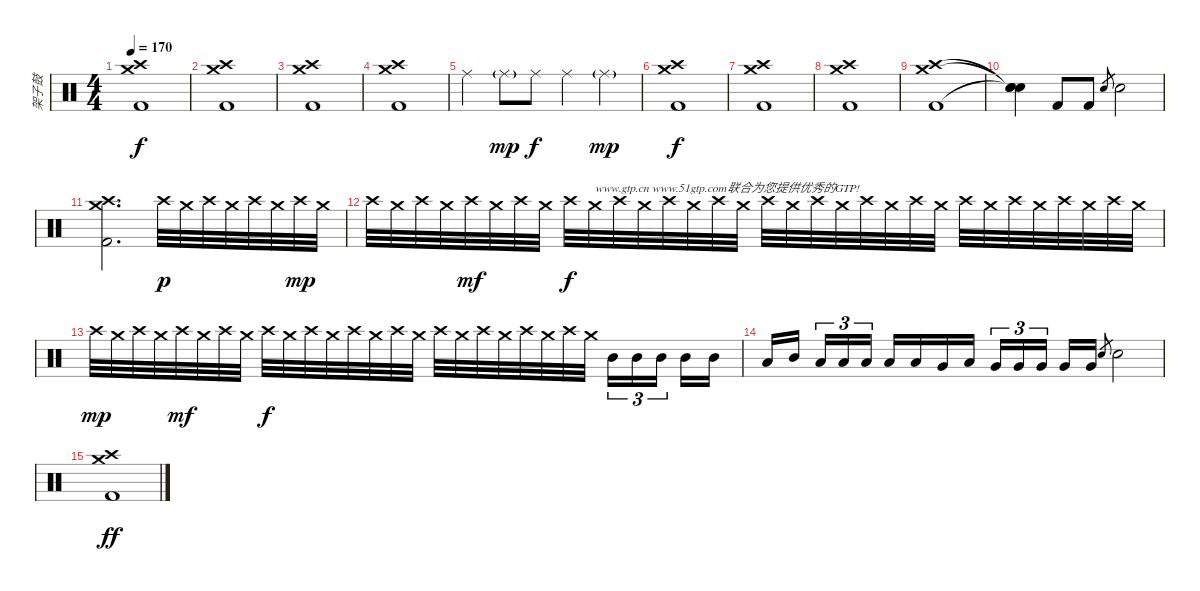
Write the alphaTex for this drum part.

\track ("架子鼓" "架子鼓") {instrument percussion}
\staff {score}
\articulation defaults
\ts (4 4)
\tempo 170
\clef neutral
\ks c
("Kick (hit) 2" "Crash medium (hit)" "Crash high (hit)").1{dy f} |
("Kick (hit) 2" "Crash medium (hit)" "Crash high (hit)").1 |
("Kick (hit) 2" "Crash medium (hit)" "Crash high (hit)").1 |
("Kick (hit) 2" "Crash medium (hit)" "Crash high (hit)").1 |
"Ride (middle)".4 "Ride (middle)"{g}.8{dy mp} "Ride (middle)".8{dy f} "Ride (middle)".4 "Ride (middle)"{g}.4{dy mp} |
("Kick (hit) 2" "Crash medium (hit)" "Crash high (hit)").1{dy f volume 12} |
("Kick (hit) 2" "Crash medium (hit)" "Crash high (hit)").1 |
("Kick (hit) 2" "Crash medium (hit)" "Crash high (hit)").1 |
("Kick (hit) 2" "Crash medium (hit)" "Crash high (hit)").1 |
("Snare (hit)"{t} "Snare (hit)"{t} "Snare (hit)"{t}).4 "Kick (hit) 2".8 "Kick (hit) 2".8 "Snare (hit) 2".8{gr} "Snare (hit) 2".2 |
("Kick (hit) 2" "Crash medium (hit)" "Crash high (hit)").2{d} "Crash high (hit)".32{dy p} "Crash medium (hit)".32 "Crash high (hit)".32 "Crash medium (hit)".32 "Crash high (hit)".32 "Crash medium (hit)".32 "Crash high (hit)".32{dy mp} "Crash medium (hit)".32 |
"Crash high (hit)".32 "Crash medium (hit)".32 "Crash high (hit)".32 "Crash medium (hit)".32 "Crash high (hit)".32{dy mf} "Crash medium (hit)".32 "Crash high (hit)".32 "Crash medium (hit)".32 "Crash high (hit)".32{dy f} "Crash medium (hit)".32{txt "www.gtp.cn www.51gtp.com联合为您提供优秀的GTP!"} "Crash high (hit)".32 "Crash medium (hit)".32 "Crash high (hit)".32 "Crash medium (hit)".32 "Crash high (hit)".32 "Crash medium (hit)".32 "Crash high (hit)".32 "Crash medium (hit)".32 "Crash high (hit)".32 "Crash medium (hit)".32 "Crash high (hit)".32 "Crash medium (hit)".32 "Crash high (hit)".32 "Crash medium (hit)".32 "Crash high (hit)".32 "Crash medium (hit)".32 "Crash high (hit)".32 "Crash medium (hit)".32 "Crash high (hit)".32 "Crash medium (hit)".32 "Crash high (hit)".32 "Crash medium (hit)".32 |
"Crash high (hit)".32{dy mp} "Crash medium (hit)".32 "Crash high (hit)".32 "Crash medium (hit)".32 "Crash high (hit)".32{dy mf} "Crash medium (hit)".32 "Crash high (hit)".32 "Crash medium (hit)".32 "Crash high (hit)".32{dy f} "Crash medium (hit)".32 "Crash high (hit)".32 "Crash medium (hit)".32 "Crash high (hit)".32 "Crash medium (hit)".32 "Crash high (hit)".32 "Crash medium (hit)".32 "Crash high (hit)".32 "Crash medium (hit)".32 "Crash high (hit)".32 "Crash medium (hit)".32 "Crash high (hit)".32 "Crash medium (hit)".32 "Crash high (hit)".32 "Crash medium (hit)".32 "Mid Tom (hit)".16{tu (3 2)} "Mid Tom (hit)".16{tu (3 2)} "Mid Tom (hit)".16{tu (3 2) beam splitsecondary} "Mid Tom (hit)".16 "Mid Tom (hit)".16 |
"Low Tom (hit)".16 "Mid Tom (hit)".16{beam splitsecondary} "Low Tom (hit)".16{tu (3 2)} "Low Tom (hit)".16{tu (3 2)} "Low Tom (hit)".16{tu (3 2)} "Low Tom (hit)".16 "Low Tom (hit)".16 "Very Low Tom (hit)".16 "Low Tom (hit)".16 "Very Low Tom (hit)".16{tu (3 2)} "Very Low Tom (hit)".16{tu (3 2)} "Very Low Tom (hit)".16{tu (3 2) beam splitsecondary} "Very Low Tom (hit)".16 "Very Low Tom (hit)".16 "Snare (hit) 2".8{gr} "Snare (hit) 2".2 |
("Kick (hit) 2" "Crash medium (hit)" "Crash high (hit)").1{dy ff}
